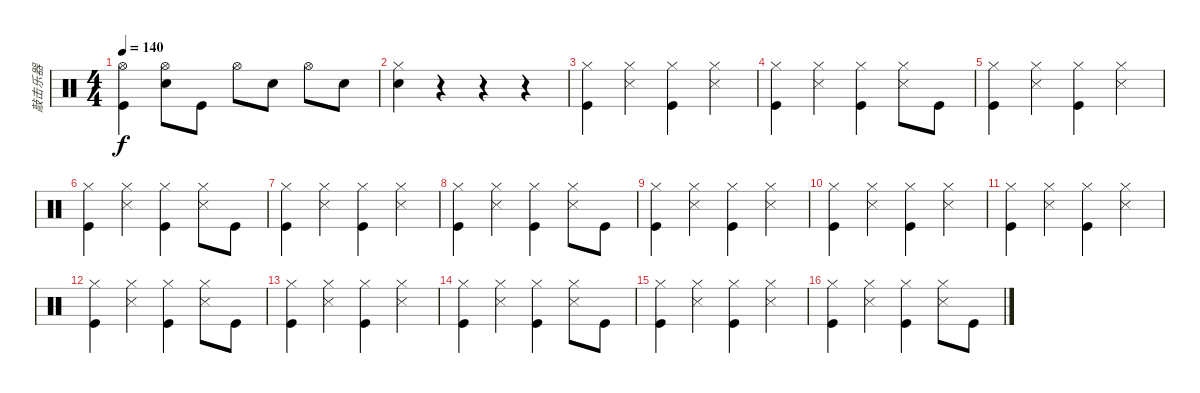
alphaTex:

\track ("敲击乐器" "敲击乐器") {instrument percussion}
\staff {score}
\articulation defaults
\ts (4 4)
\tempo 140
\clef neutral
\ks c
("Hi-Hat (open)" "Kick (hit)").4{dy f} ("Snare (hit) 2" "Hi-Hat (open)").8 "Kick (hit)".8 "Hi-Hat (open)".8 "Snare (hit) 2".8 "Hi-Hat (open)".8 "Snare (hit) 2".8 |
("Snare (hit) 2" "Hi-Hat (closed)").4 r.4 r.4 r.4 |
("Kick (hit)" "Hi-Hat (closed)").4 ("Snare (side stick) 3" "Hi-Hat (closed)").4 ("Kick (hit)" "Hi-Hat (closed)").4 ("Snare (side stick) 3" "Hi-Hat (closed)").4 |
("Kick (hit)" "Hi-Hat (closed)").4 ("Snare (side stick) 3" "Hi-Hat (closed)").4 ("Kick (hit)" "Hi-Hat (closed)").4 ("Snare (side stick) 3" "Hi-Hat (closed)").8 "Kick (hit)".8 |
("Kick (hit)" "Hi-Hat (closed)").4 ("Snare (side stick) 3" "Hi-Hat (closed)").4 ("Kick (hit)" "Hi-Hat (closed)").4 ("Snare (side stick) 3" "Hi-Hat (closed)").4 |
("Kick (hit)" "Hi-Hat (closed)").4 ("Snare (side stick) 3" "Hi-Hat (closed)").4 ("Kick (hit)" "Hi-Hat (closed)").4 ("Snare (side stick) 3" "Hi-Hat (closed)").8 "Kick (hit)".8 |
("Kick (hit)" "Hi-Hat (closed)").4 ("Snare (side stick) 3" "Hi-Hat (closed)").4 ("Kick (hit)" "Hi-Hat (closed)").4 ("Snare (side stick) 3" "Hi-Hat (closed)").4 |
("Kick (hit)" "Hi-Hat (closed)").4 ("Snare (side stick) 3" "Hi-Hat (closed)").4 ("Kick (hit)" "Hi-Hat (closed)").4 ("Snare (side stick) 3" "Hi-Hat (closed)").8 "Kick (hit)".8 |
("Kick (hit)" "Hi-Hat (closed)").4 ("Snare (side stick) 3" "Hi-Hat (closed)").4 ("Kick (hit)" "Hi-Hat (closed)").4 ("Snare (side stick) 3" "Hi-Hat (closed)").4 |
("Kick (hit)" "Hi-Hat (closed)").4 ("Snare (side stick) 3" "Hi-Hat (closed)").4 ("Kick (hit)" "Hi-Hat (closed)").4 ("Snare (side stick) 3" "Hi-Hat (closed)").4 |
("Kick (hit)" "Hi-Hat (closed)").4 ("Snare (side stick) 3" "Hi-Hat (closed)").4 ("Kick (hit)" "Hi-Hat (closed)").4 ("Snare (side stick) 3" "Hi-Hat (closed)").4 |
("Kick (hit)" "Hi-Hat (closed)").4 ("Snare (side stick) 3" "Hi-Hat (closed)").4 ("Kick (hit)" "Hi-Hat (closed)").4 ("Snare (side stick) 3" "Hi-Hat (closed)").8 "Kick (hit)".8 |
("Kick (hit)" "Hi-Hat (closed)").4 ("Snare (side stick) 3" "Hi-Hat (closed)").4 ("Kick (hit)" "Hi-Hat (closed)").4 ("Snare (side stick) 3" "Hi-Hat (closed)").4 |
("Kick (hit)" "Hi-Hat (closed)").4 ("Snare (side stick) 3" "Hi-Hat (closed)").4 ("Kick (hit)" "Hi-Hat (closed)").4 ("Snare (side stick) 3" "Hi-Hat (closed)").8 "Kick (hit)".8 |
("Kick (hit)" "Hi-Hat (closed)").4 ("Snare (side stick) 3" "Hi-Hat (closed)").4 ("Kick (hit)" "Hi-Hat (closed)").4 ("Snare (side stick) 3" "Hi-Hat (closed)").4 |
("Kick (hit)" "Hi-Hat (closed)").4 ("Snare (side stick) 3" "Hi-Hat (closed)").4 ("Kick (hit)" "Hi-Hat (closed)").4 ("Snare (side stick) 3" "Hi-Hat (closed)").8 "Kick (hit)".8
